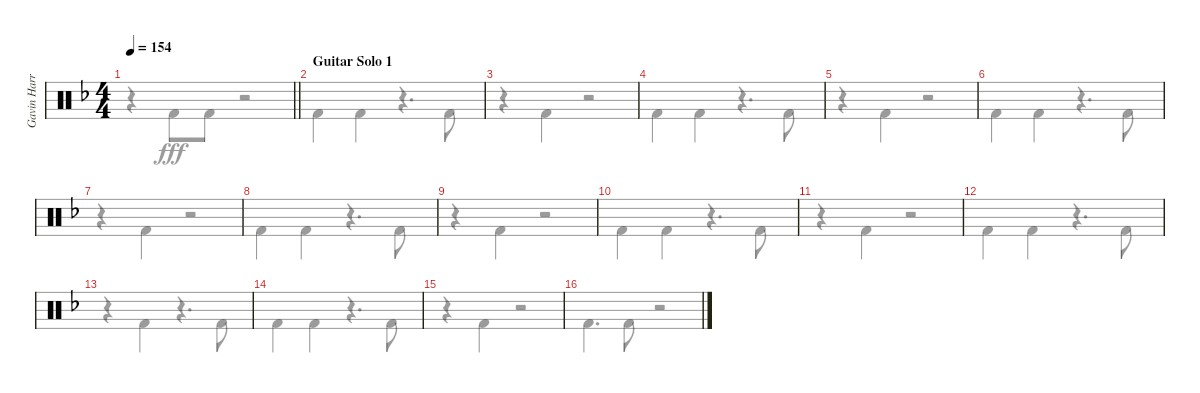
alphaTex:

\track ("Gavin Harrison Bass Pedal" "Gavin Harr") {instrument percussion}
\staff {score}
\articulation defaults
\voice
\ts (4 4)
\tempo 154
\clef neutral
\barLineRight lightlight
\ks dminor
|
\section ("" "Guitar Solo 1")
|
|
|
|
|
|
|
|
|
|
|
|
|
|
\voice
\clef neutral
\barLineRight lightlight
\ks dminor
r.4{dy fff} "Kick (hit) 2".8 "Kick (hit) 2".8 r.2 |
"Kick (hit) 2".4 "Kick (hit) 2".4 r.4{d} "Kick (hit) 2".8 |
r.4 "Kick (hit) 2".4 r.2 |
"Kick (hit) 2".4 "Kick (hit) 2".4 r.4{d} "Kick (hit) 2".8 |
r.4 "Kick (hit) 2".4 r.2 |
"Kick (hit) 2".4 "Kick (hit) 2".4 r.4{d} "Kick (hit) 2".8 |
r.4 "Kick (hit) 2".4 r.2 |
"Kick (hit) 2".4 "Kick (hit) 2".4 r.4{d} "Kick (hit) 2".8 |
r.4 "Kick (hit) 2".4 r.2 |
"Kick (hit) 2".4 "Kick (hit) 2".4 r.4{d} "Kick (hit) 2".8 |
r.4 "Kick (hit) 2".4 r.2 |
"Kick (hit) 2".4 "Kick (hit) 2".4 r.4{d} "Kick (hit) 2".8 |
r.4 "Kick (hit) 2".4 r.4{d} "Kick (hit) 2".8 |
"Kick (hit) 2".4 "Kick (hit) 2".4 r.4{d} "Kick (hit) 2".8 |
r.4 "Kick (hit) 2".4 r.2 |
"Kick (hit) 2".4{d} "Kick (hit) 2".8 r.2
